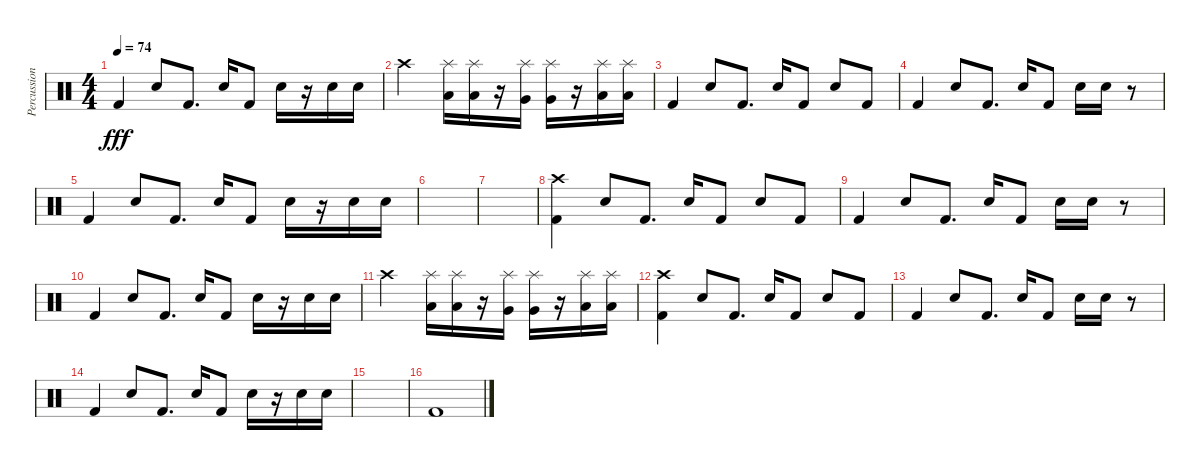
\track ("Percussion" "Percussion") {instrument percussion}
\staff {score}
\articulation defaults
\ts (4 4)
\tempo 74
\clef neutral
\ks c "Kick (hit) 2".4{dy fff} "Electric Snare (hit)".8 "Kick (hit) 2".8{d} "Electric Snare (hit)".16 "Kick (hit) 2".8 "Electric Snare (hit)".16
r.16 "Electric Snare (hit)".16 "Electric Snare (hit)".16 |
"Crash high (hit)".2 ("Splash (hit)" "Low Tom (hit)").16 ("Splash (hit)" "Low Tom (hit)").16 r.16 ("Splash (hit)" "Very Low Tom (hit)").16 ("Splash (hit)" "Very Low Tom (hit)").16 r.16 ("Splash (hit)" "Low Floor Tom (hit)").16 ("Splash (hit)" "Low Floor Tom (hit)").16 |
"Kick (hit) 2".4 "Electric Snare (hit)".8 "Kick (hit) 2".8{d} "Electric Snare (hit)".16 "Kick (hit) 2".8 "Electric Snare (hit)".8 "Kick (hit) 2".8 |
"Kick (hit) 2".4 "Electric Snare (hit)".8 "Kick (hit) 2".8{d} "Electric Snare (hit)".16 "Kick (hit) 2".8 "Electric Snare (hit)".16 "Electric Snare (hit)".16 r.8 |
"Kick (hit) 2".4 "Electric Snare (hit)".8 "Kick (hit) 2".8{d} "Electric Snare (hit)".16 "Kick (hit) 2".8 "Electric Snare (hit)".16 r.16 "Electric Snare (hit)".16 "Electric Snare (hit)".16 |
|
|
("Crash high (hit)" "Kick (hit) 2").4 "Electric Snare (hit)".8 "Kick (hit) 2".8{d} "Electric Snare (hit)".16 "Kick (hit) 2".8 "Electric Snare (hit)".8 "Kick (hit) 2".8 |
"Kick (hit) 2".4 "Electric Snare (hit)".8 "Kick (hit) 2".8{d} "Electric Snare (hit)".16 "Kick (hit) 2".8 "Electric Snare (hit)".16 "Electric Snare (hit)".16 r.8 |
"Kick (hit) 2".4 "Electric Snare (hit)".8 "Kick (hit) 2".8{d} "Electric Snare (hit)".16 "Kick (hit) 2".8 "Electric Snare (hit)".16 r.16 "Electric Snare (hit)".16 "Electric Snare (hit)".16 |
"Crash high (hit)".2 ("Splash (hit)" "Low Tom (hit)").16 ("Splash (hit)" "Low Tom (hit)").16 r.16 ("Splash (hit)" "Very Low Tom (hit)").16 ("Splash (hit)" "Very Low Tom (hit)").16 r.16 ("Splash (hit)" "Low Floor Tom (hit)").16 ("Splash (hit)" "Low Floor Tom (hit)").16 |
("Crash high (hit)" "Kick (hit) 2").4 "Electric Snare (hit)".8 "Kick (hit) 2".8{d} "Electric Snare (hit)".16 "Kick (hit) 2".8 "Electric Snare (hit)".8 "Kick (hit) 2".8 |
"Kick (hit) 2".4 "Electric Snare (hit)".8 "Kick (hit) 2".8{d} "Electric Snare (hit)".16 "Kick (hit) 2".8 "Electric Snare (hit)".16 "Electric Snare (hit)".16 r.8 |
"Kick (hit) 2".4 "Electric Snare (hit)".8 "Kick (hit) 2".8{d} "Electric Snare (hit)".16 "Kick (hit) 2".8 "Electric Snare (hit)".16 r.16 "Electric Snare (hit)".16 "Electric Snare (hit)".16 |
|
"Kick (hit) 2".1
